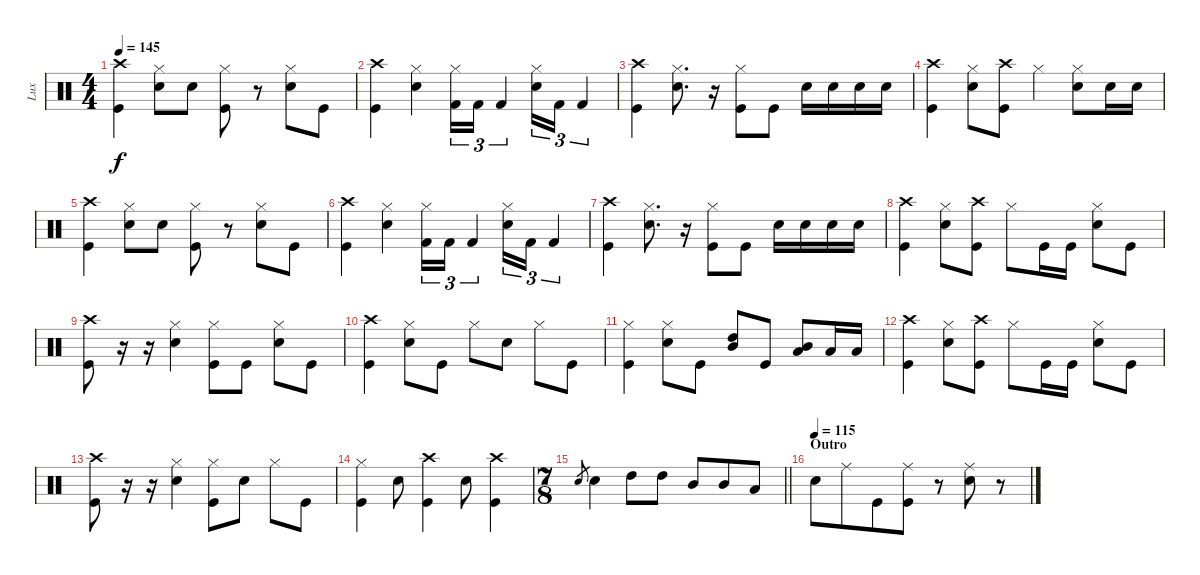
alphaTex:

\track ("Lux" "Lux") {mute instrument percussion}
\staff {score}
\articulation defaults
\ts (4 4)
\tempo 145
\clef neutral
\ks c
("Crash high (hit)" "Kick (hit)").4{dy f} ("Hi-Hat (closed)" "Snare (hit) 2").8 "Snare (hit) 2".8 ("Hi-Hat (closed)" "Kick (hit)").8 r.8 ("Hi-Hat (closed)" "Snare (hit) 2").8 "Kick (hit)".8 |
("Crash high (hit)" "Kick (hit)").4 ("Hi-Hat (closed)" "Snare (hit) 2").4 ("Hi-Hat (closed)" "Kick (hit) 2").16{tu (3 2)} "Kick (hit) 2".16{tu (3 2)} "Kick (hit) 2".4{tu (3 2)} ("Hi-Hat (closed)" "Snare (hit) 2").16{tu (3 2)} "Kick (hit) 2".16{tu (3 2)} "Kick (hit) 2".4{tu (3 2)} |
("Crash high (hit)" "Kick (hit)").4 ("Hi-Hat (closed)" "Snare (hit) 2").8{d} r.16 ("Hi-Hat (closed)" "Kick (hit)").8 "Kick (hit)".8 "Snare (hit) 2".16 "Snare (hit) 2".16 "Snare (hit) 2".16 "Snare (hit) 2".16 |
("Crash high (hit)" "Kick (hit)").4 ("Hi-Hat (closed)" "Snare (hit) 2").8 ("Crash high (hit)" "Kick (hit)").8 "Hi-Hat (closed)".4 ("Hi-Hat (closed)" "Snare (hit) 2").8 "Snare (hit) 2".16 "Snare (hit) 2".16 |
("Crash high (hit)" "Kick (hit)").4 ("Hi-Hat (closed)" "Snare (hit) 2").8 "Snare (hit) 2".8 ("Hi-Hat (closed)" "Kick (hit)").8 r.8 ("Hi-Hat (closed)" "Snare (hit) 2").8 "Kick (hit)".8 |
("Crash high (hit)" "Kick (hit)").4 ("Hi-Hat (closed)" "Snare (hit) 2").4 ("Hi-Hat (closed)" "Kick (hit) 2").16{tu (3 2)} "Kick (hit) 2".16{tu (3 2)} "Kick (hit) 2".4{tu (3 2)} ("Hi-Hat (closed)" "Snare (hit) 2").16{tu (3 2)} "Kick (hit) 2".16{tu (3 2)} "Kick (hit) 2".4{tu (3 2)} |
("Crash high (hit)" "Kick (hit)").4 ("Hi-Hat (closed)" "Snare (hit) 2").8{d} r.16 ("Hi-Hat (closed)" "Kick (hit)").8 "Kick (hit)".8 "Snare (hit) 2".16 "Snare (hit) 2".16 "Snare (hit) 2".16 "Snare (hit) 2".16 |
("Crash high (hit)" "Kick (hit)").4 ("Hi-Hat (closed)" "Snare (hit) 2").8 ("Crash high (hit)" "Kick (hit)").8 "Hi-Hat (closed)".8 "Kick (hit)".16 "Kick (hit)".16 ("Hi-Hat (closed)" "Snare (hit) 2").8 "Kick (hit)".8 |
("Crash high (hit)" "Kick (hit)").8 r.16 r.16 ("Hi-Hat (closed)" "Snare (hit) 2").4 ("Hi-Hat (closed)" "Kick (hit)").8 "Kick (hit)".8 ("Hi-Hat (closed)" "Snare (hit) 2").8 "Kick (hit)".8 |
("Crash high (hit)" "Kick (hit)").4 ("Hi-Hat (closed)" "Snare (hit) 2").8 "Kick (hit)".8 "Hi-Hat (closed)".8 "Snare (hit) 2".8 "Hi-Hat (closed)".8 "Kick (hit)".8 |
("Hi-Hat (closed)" "Kick (hit)").4 ("Hi-Hat (closed)" "Snare (hit) 2").8 "Kick (hit)".8 ("High Tom (hit)" "Mid Tom (hit)").8 "Kick (hit)".8 ("Mid Tom (hit)" "Low Tom (hit)").8 "Low Tom (hit)".16 "Low Tom (hit)".16 |
("Crash high (hit)" "Kick (hit)").4 ("Hi-Hat (closed)" "Snare (hit) 2").8 ("Crash high (hit)" "Kick (hit)").8 "Hi-Hat (closed)".8 "Kick (hit)".16 "Kick (hit)".16 ("Hi-Hat (closed)" "Snare (hit) 2").8 "Kick (hit)".8 |
("Crash high (hit)" "Kick (hit)").8 r.16 r.16 ("Hi-Hat (closed)" "Snare (hit) 2").4 ("Hi-Hat (closed)" "Kick (hit)").8 "Snare (hit) 2".8 "Hi-Hat (closed)".8 "Kick (hit)".8 |
("Hi-Hat (closed)" "Kick (hit)").4 "Snare (hit) 2".8 ("Crash high (hit)" "Kick (hit)").4 "Snare (hit) 2".8 ("Crash high (hit)" "Kick (hit)").4 |
\ts (7 8)
\barLineRight lightlight "Snare (hit) 2".8{gr} "Snare (hit) 2".4 "High Tom (hit)".8 "High Tom (hit)".8 "Mid Tom (hit)".8 "Mid Tom (hit)".8 "Low Tom (hit)".8
|
\section ("" "Outro")
\tempo (115)
"Snare (hit) 2".8 "Ride (middle)".8 "Kick (hit)".8 ("Ride (middle)" "Kick (hit)").8 r.8 ("Ride (middle)" "Snare (hit) 2").8 r.8
